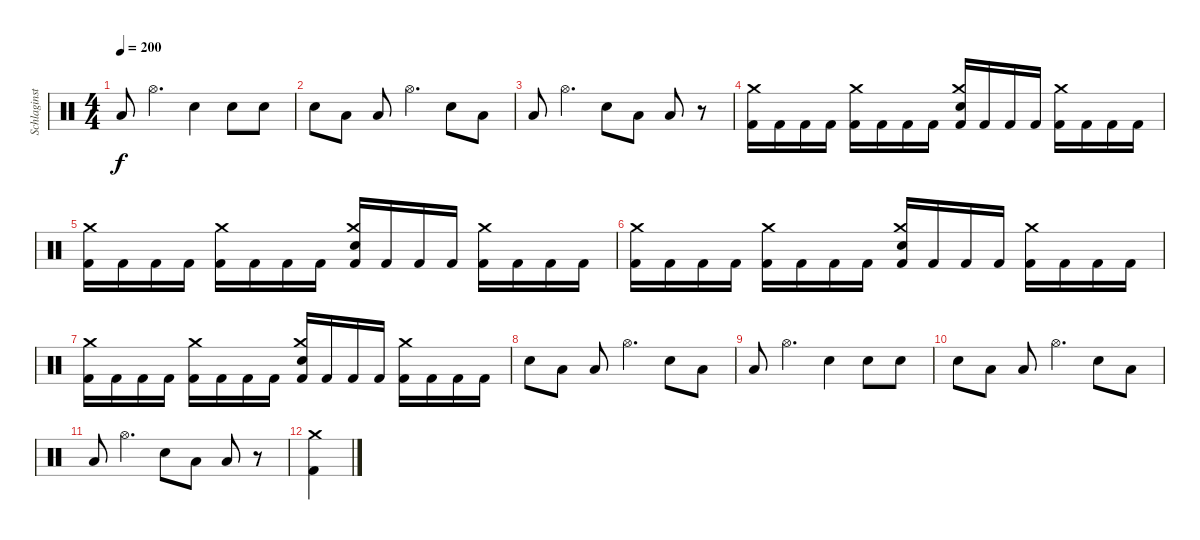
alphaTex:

\track ("Schlaginstrumente - Auswahl" "Schlaginst") {instrument percussion}
\staff {score}
\articulation defaults
\ts (4 4)
\tempo 200
\clef neutral
\ks c "Low Tom (hit)".8{dy f} "Hi-Hat (open)".4{d} "Snare (hit) 2".4 "Snare (hit) 2".8 "Snare (hit) 2".8
|
"Snare (hit) 2".8 "Low Tom (hit)".8 "Low Tom (hit)".8 "Hi-Hat (open)".4{d} "Snare (hit) 2".8 "Low Tom (hit)".8 |
"Low Tom (hit)".8 "Hi-Hat (open)".4{d} "Snare (hit) 2".8 "Low Tom (hit)".8 "Low Tom (hit)".8 r.8 |
("Crash medium (hit)" "Kick (hit) 2").16 "Kick (hit) 2".16 "Kick (hit) 2".16 "Kick (hit) 2".16 ("Crash medium (hit)" "Kick (hit) 2").16 "Kick (hit) 2".16 "Kick (hit) 2".16 "Kick (hit) 2".16 ("Crash medium (hit)" "Snare (hit) 2" "Kick (hit) 2").16 "Kick (hit) 2".16 "Kick (hit) 2".16 "Kick (hit) 2".16 ("Crash medium (hit)" "Kick (hit) 2").16 "Kick (hit) 2".16 "Kick (hit) 2".16 "Kick (hit) 2".16 |
("Crash medium (hit)" "Kick (hit) 2").16 "Kick (hit) 2".16 "Kick (hit) 2".16 "Kick (hit) 2".16 ("Crash medium (hit)" "Kick (hit) 2").16 "Kick (hit) 2".16 "Kick (hit) 2".16 "Kick (hit) 2".16 ("Crash medium (hit)" "Snare (hit) 2" "Kick (hit) 2").16 "Kick (hit) 2".16 "Kick (hit) 2".16 "Kick (hit) 2".16 ("Crash medium (hit)" "Kick (hit) 2").16 "Kick (hit) 2".16 "Kick (hit) 2".16 "Kick (hit) 2".16 |
("Crash medium (hit)" "Kick (hit) 2").16 "Kick (hit) 2".16 "Kick (hit) 2".16 "Kick (hit) 2".16 ("Crash medium (hit)" "Kick (hit) 2").16 "Kick (hit) 2".16 "Kick (hit) 2".16 "Kick (hit) 2".16 ("Crash medium (hit)" "Snare (hit) 2" "Kick (hit) 2").16 "Kick (hit) 2".16 "Kick (hit) 2".16 "Kick (hit) 2".16 ("Crash medium (hit)" "Kick (hit) 2").16 "Kick (hit) 2".16 "Kick (hit) 2".16 "Kick (hit) 2".16 |
("Crash medium (hit)" "Kick (hit) 2").16 "Kick (hit) 2".16 "Kick (hit) 2".16 "Kick (hit) 2".16 ("Crash medium (hit)" "Kick (hit) 2").16 "Kick (hit) 2".16 "Kick (hit) 2".16 "Kick (hit) 2".16 ("Crash medium (hit)" "Snare (hit) 2" "Kick (hit) 2").16 "Kick (hit) 2".16 "Kick (hit) 2".16 "Kick (hit) 2".16 ("Crash medium (hit)" "Kick (hit) 2").16 "Kick (hit) 2".16 "Kick (hit) 2".16 "Kick (hit) 2".16 |
"Snare (hit) 2".8 "Low Tom (hit)".8 "Low Tom (hit)".8 "Hi-Hat (open)".4{d} "Snare (hit) 2".8 "Low Tom (hit)".8 |
"Low Tom (hit)".8 "Hi-Hat (open)".4{d} "Snare (hit) 2".4 "Snare (hit) 2".8 "Snare (hit) 2".8 |
"Snare (hit) 2".8 "Low Tom (hit)".8 "Low Tom (hit)".8 "Hi-Hat (open)".4{d} "Snare (hit) 2".8 "Low Tom (hit)".8 |
"Low Tom (hit)".8 "Hi-Hat (open)".4{d} "Snare (hit) 2".8 "Low Tom (hit)".8 "Low Tom (hit)".8 r.8 |
("Crash medium (hit)" "Kick (hit) 2").4
